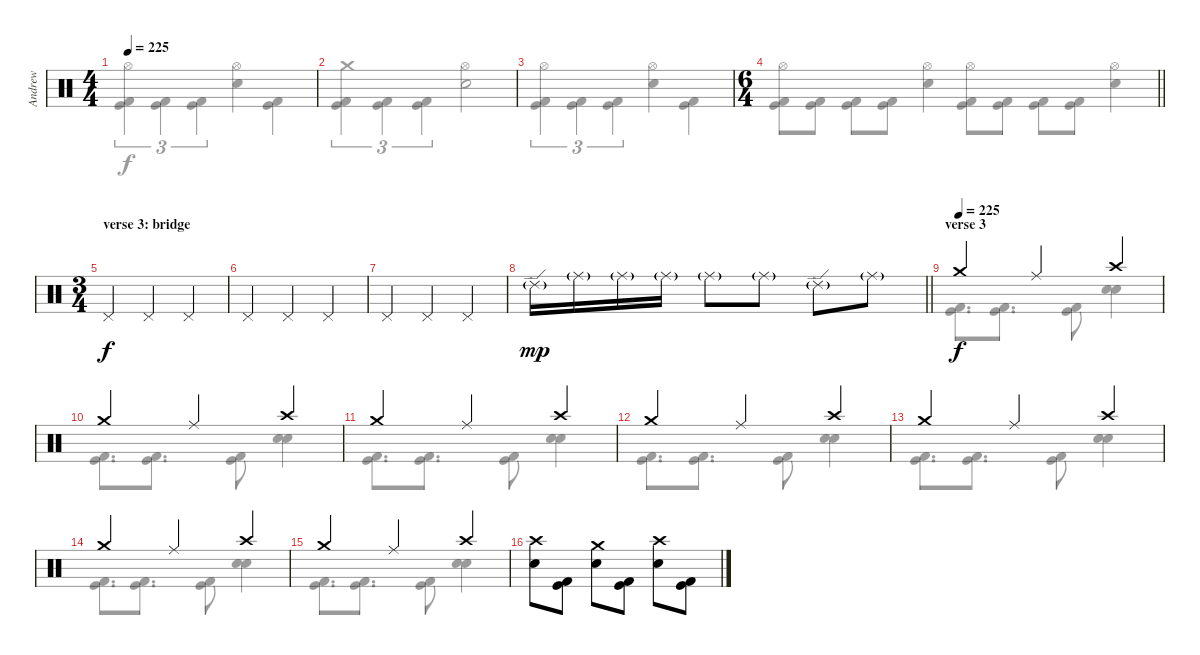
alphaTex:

\track ("Andrew" "Andrew") {instrument percussion}
\staff {score}
\articulation defaults
\voice
\ts (4 4)
\tempo 225
\clef neutral
\ks c
|
|
|
\ts (6 4)
\barLineRight lightlight
|
\ts (3 4)
\section ("" "verse 3: bridge")
"Pedal Hi-Hat (hit)".4 "Pedal Hi-Hat (hit)".4 "Pedal Hi-Hat (hit)".4 |
"Pedal Hi-Hat (hit)".4 "Pedal Hi-Hat (hit)".4 "Pedal Hi-Hat (hit)".4 |
"Pedal Hi-Hat (hit)".4 "Pedal Hi-Hat (hit)".4 "Pedal Hi-Hat (hit)".4 |
\barLineRight lightlight "Ride (edge) 2"{g}.16{dy mp} "Ride (middle)"{g}.16 "Ride (middle)"{g}.16 "Ride (middle)"{g}.16 "Ride (middle)"{g}.8 "Ride (middle)"{g}.8 "Ride (edge) 2"{g}.8 "Ride (middle)"{g}.8
|
\section ("" "verse 3")
\tempo (225)
"Crash medium (hit)".4{dy f} "Ride (middle)".4 "Crash high (hit)".4 |
"Crash medium (hit)".4 "Ride (middle)".4 "Crash high (hit)".4 |
"Crash medium (hit)".4 "Ride (middle)".4 "Crash high (hit)".4 |
"Crash medium (hit)".4 "Ride (middle)".4 "Crash high (hit)".4 |
"Crash medium (hit)".4 "Ride (middle)".4 "Crash high (hit)".4 |
"Crash medium (hit)".4 "Ride (middle)".4 "Crash high (hit)".4 |
"Crash medium (hit)".4 "Ride (middle)".4 "Crash high (hit)".4 |
("Crash high (hit)" "Snare (hit) 2").8 ("Kick (hit)" "Kick (hit) 2").8 ("Crash medium (hit)" "Snare (hit) 2").8 ("Kick (hit)" "Kick (hit) 2").8 ("Crash high (hit)" "Snare (hit) 2").8 ("Kick (hit)" "Kick (hit) 2").8
\voice
\clef neutral
\ottava regular
\simile none
\ks c
("Hi-Hat (open)" "Kick (hit)" "Kick (hit) 2").4{tu (3 2) dy f} ("Kick (hit)" "Kick (hit) 2").4{tu (3 2)} ("Kick (hit)" "Kick (hit) 2").4{tu (3 2)} ("Hi-Hat (open)" "Electric Snare (hit)").4 ("Kick (hit)" "Kick (hit) 2").4 |
("Crash medium (hit)" "Kick (hit)" "Kick (hit) 2").4{tu (3 2)} ("Kick (hit)" "Kick (hit) 2").4{tu (3 2)} ("Kick (hit)" "Kick (hit) 2").4{tu (3 2)} ("Hi-Hat (open)" "Electric Snare (hit)").2 |
("Hi-Hat (open)" "Kick (hit)" "Kick (hit) 2").4{tu (3 2)} ("Kick (hit)" "Kick (hit) 2").4{tu (3 2)} ("Kick (hit)" "Kick (hit) 2").4{tu (3 2)} ("Hi-Hat (open)" "Electric Snare (hit)").4 ("Kick (hit)" "Kick (hit) 2").4 |
\barLineRight lightlight
("Hi-Hat (open)" "Kick (hit)" "Kick (hit) 2").8 ("Kick (hit)" "Kick (hit) 2").8 ("Kick (hit)" "Kick (hit) 2").8 ("Kick (hit)" "Kick (hit) 2").8 ("Hi-Hat (open)" "Snare (hit) 2").4 ("Hi-Hat (open)" "Kick (hit)" "Kick (hit) 2").8 ("Kick (hit)" "Kick (hit) 2").8 ("Kick (hit)" "Kick (hit) 2").8 ("Kick (hit)" "Kick (hit) 2").8 ("Hi-Hat (open)" "Snare (hit) 2").4 |
|
|
|
\barLineRight lightlight
|
("Kick (hit)" "Kick (hit) 2").8{d} ("Kick (hit)" "Kick (hit) 2").8{d} ("Kick (hit)" "Kick (hit) 2").8 ("Snare (hit) 2" "Snare (hit) 2").4 |
("Kick (hit)" "Kick (hit) 2").8{d} ("Kick (hit)" "Kick (hit) 2").8{d} ("Kick (hit)" "Kick (hit) 2").8 ("Snare (hit) 2" "Snare (hit) 2").4 |
("Kick (hit)" "Kick (hit) 2").8{d} ("Kick (hit)" "Kick (hit) 2").8{d} ("Kick (hit)" "Kick (hit) 2").8 ("Snare (hit) 2" "Snare (hit) 2").4 |
("Kick (hit)" "Kick (hit) 2").8{d} ("Kick (hit)" "Kick (hit) 2").8{d} ("Kick (hit)" "Kick (hit) 2").8 ("Snare (hit) 2" "Snare (hit) 2").4 |
("Kick (hit)" "Kick (hit) 2").8{d} ("Kick (hit)" "Kick (hit) 2").8{d} ("Kick (hit)" "Kick (hit) 2").8 ("Snare (hit) 2" "Snare (hit) 2").4 |
("Kick (hit)" "Kick (hit) 2").8{d} ("Kick (hit)" "Kick (hit) 2").8{d} ("Kick (hit)" "Kick (hit) 2").8 ("Snare (hit) 2" "Snare (hit) 2").4 |
("Kick (hit)" "Kick (hit) 2").8{d} ("Kick (hit)" "Kick (hit) 2").8{d} ("Kick (hit)" "Kick (hit) 2").8 ("Snare (hit) 2" "Snare (hit) 2").4 |
